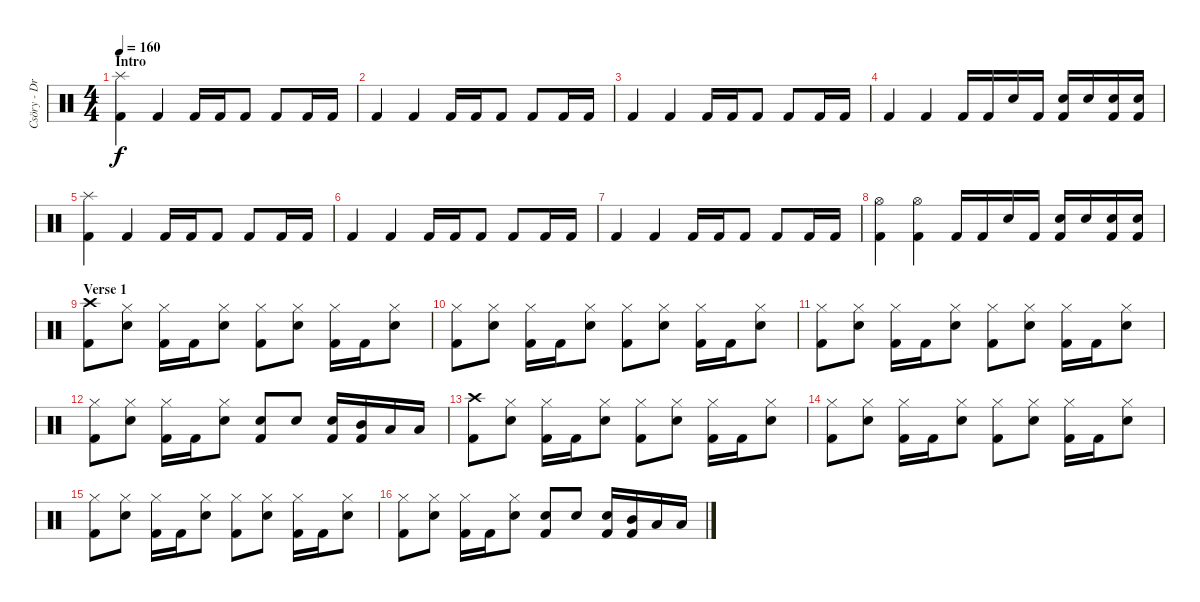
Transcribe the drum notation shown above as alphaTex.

\track ("Csöry - DrumZ" "Csöry - Dr") {instrument percussion}
\staff {score}
\articulation defaults
\ts (4 4)
\section ("" "Intro")
\tempo 160
\clef neutral
\ks c
("Splash (hit)" "Kick (hit) 2").4{dy f} "Kick (hit) 2".4 "Kick (hit) 2".16 "Kick (hit) 2".16 "Kick (hit) 2".8 "Kick (hit) 2".8 "Kick (hit) 2".16 "Kick (hit) 2".16 |
"Kick (hit) 2".4 "Kick (hit) 2".4 "Kick (hit) 2".16 "Kick (hit) 2".16 "Kick (hit) 2".8 "Kick (hit) 2".8 "Kick (hit) 2".16 "Kick (hit) 2".16 |
"Kick (hit) 2".4 "Kick (hit) 2".4 "Kick (hit) 2".16 "Kick (hit) 2".16 "Kick (hit) 2".8 "Kick (hit) 2".8 "Kick (hit) 2".16 "Kick (hit) 2".16 |
"Kick (hit) 2".4 "Kick (hit) 2".4 "Kick (hit) 2".16 "Kick (hit) 2".16 "Snare (hit) 2".16 "Kick (hit) 2".16 ("Snare (hit) 2" "Kick (hit) 2").16 "Snare (hit) 2".16 ("Snare (hit) 2" "Kick (hit) 2").16 ("Snare (hit) 2" "Kick (hit) 2").16 |
("Splash (hit)" "Kick (hit) 2").4 "Kick (hit) 2".4 "Kick (hit) 2".16 "Kick (hit) 2".16 "Kick (hit) 2".8 "Kick (hit) 2".8 "Kick (hit) 2".16 "Kick (hit) 2".16 |
"Kick (hit) 2".4 "Kick (hit) 2".4 "Kick (hit) 2".16 "Kick (hit) 2".16 "Kick (hit) 2".8 "Kick (hit) 2".8 "Kick (hit) 2".16 "Kick (hit) 2".16 |
"Kick (hit) 2".4 "Kick (hit) 2".4 "Kick (hit) 2".16 "Kick (hit) 2".16 "Kick (hit) 2".8 "Kick (hit) 2".8 "Kick (hit) 2".16 "Kick (hit) 2".16 |
("Hi-Hat (open)" "Kick (hit) 2").4 ("Hi-Hat (open)" "Kick (hit) 2").4 "Kick (hit) 2".16 "Kick (hit) 2".16 "Snare (hit) 2".16 "Kick (hit) 2".16 ("Snare (hit) 2" "Kick (hit) 2").16 "Snare (hit) 2".16 ("Snare (hit) 2" "Kick (hit) 2").16 ("Snare (hit) 2" "Kick (hit) 2").16 |
\section ("" "Verse 1")
("Crash high (hit)" "Kick (hit) 2").8 ("Hi-Hat (closed)" "Snare (hit) 2").8 ("Hi-Hat (closed)" "Kick (hit) 2").16 "Kick (hit) 2".16 ("Hi-Hat (closed)" "Snare (hit) 2").8 ("Hi-Hat (closed)" "Kick (hit) 2").8 ("Hi-Hat (closed)" "Snare (hit) 2").8 ("Hi-Hat (closed)" "Kick (hit) 2").16 "Kick (hit) 2".16 ("Hi-Hat (closed)" "Snare (hit) 2").8 |
("Hi-Hat (closed)" "Kick (hit) 2").8 ("Hi-Hat (closed)" "Snare (hit) 2").8 ("Hi-Hat (closed)" "Kick (hit) 2").16 "Kick (hit) 2".16 ("Hi-Hat (closed)" "Snare (hit) 2").8 ("Hi-Hat (closed)" "Kick (hit) 2").8 ("Hi-Hat (closed)" "Snare (hit) 2").8 ("Hi-Hat (closed)" "Kick (hit) 2").16 "Kick (hit) 2".16 ("Hi-Hat (closed)" "Snare (hit) 2").8 |
("Hi-Hat (closed)" "Kick (hit) 2").8 ("Hi-Hat (closed)" "Snare (hit) 2").8 ("Hi-Hat (closed)" "Kick (hit) 2").16 "Kick (hit) 2".16 ("Hi-Hat (closed)" "Snare (hit) 2").8 ("Hi-Hat (closed)" "Kick (hit) 2").8 ("Hi-Hat (closed)" "Snare (hit) 2").8 ("Hi-Hat (closed)" "Kick (hit) 2").16 "Kick (hit) 2".16 ("Hi-Hat (closed)" "Snare (hit) 2").8 |
("Hi-Hat (closed)" "Kick (hit) 2").8 ("Hi-Hat (closed)" "Snare (hit) 2").8 ("Hi-Hat (closed)" "Kick (hit) 2").16 "Kick (hit) 2".16 ("Hi-Hat (closed)" "Snare (hit) 2").8 ("Snare (hit) 2" "Kick (hit) 2").8 "Snare (hit) 2".8 ("Snare (hit) 2" "Kick (hit) 2").16 ("Mid Tom (hit)" "Kick (hit) 2").16 "Low Tom (hit)".16 "Low Floor Tom (hit)".16 |
("Crash high (hit)" "Kick (hit) 2").8 ("Hi-Hat (closed)" "Snare (hit) 2").8 ("Hi-Hat (closed)" "Kick (hit) 2").16 "Kick (hit) 2".16 ("Hi-Hat (closed)" "Snare (hit) 2").8 ("Hi-Hat (closed)" "Kick (hit) 2").8 ("Hi-Hat (closed)" "Snare (hit) 2").8 ("Hi-Hat (closed)" "Kick (hit) 2").16 "Kick (hit) 2".16 ("Hi-Hat (closed)" "Snare (hit) 2").8 |
("Hi-Hat (closed)" "Kick (hit) 2").8 ("Hi-Hat (closed)" "Snare (hit) 2").8 ("Hi-Hat (closed)" "Kick (hit) 2").16 "Kick (hit) 2".16 ("Hi-Hat (closed)" "Snare (hit) 2").8 ("Hi-Hat (closed)" "Kick (hit) 2").8 ("Hi-Hat (closed)" "Snare (hit) 2").8 ("Hi-Hat (closed)" "Kick (hit) 2").16 "Kick (hit) 2".16 ("Hi-Hat (closed)" "Snare (hit) 2").8 |
("Hi-Hat (closed)" "Kick (hit) 2").8 ("Hi-Hat (closed)" "Snare (hit) 2").8 ("Hi-Hat (closed)" "Kick (hit) 2").16 "Kick (hit) 2".16 ("Hi-Hat (closed)" "Snare (hit) 2").8 ("Hi-Hat (closed)" "Kick (hit) 2").8 ("Hi-Hat (closed)" "Snare (hit) 2").8 ("Hi-Hat (closed)" "Kick (hit) 2").16 "Kick (hit) 2".16 ("Hi-Hat (closed)" "Snare (hit) 2").8 |
("Hi-Hat (closed)" "Kick (hit) 2").8 ("Hi-Hat (closed)" "Snare (hit) 2").8 ("Hi-Hat (closed)" "Kick (hit) 2").16 "Kick (hit) 2".16 ("Hi-Hat (closed)" "Snare (hit) 2").8 ("Snare (hit) 2" "Kick (hit) 2").8 "Snare (hit) 2".8 ("Snare (hit) 2" "Kick (hit) 2").16 ("Mid Tom (hit)" "Kick (hit) 2").16 "Low Tom (hit)".16 "Low Floor Tom (hit)".16
